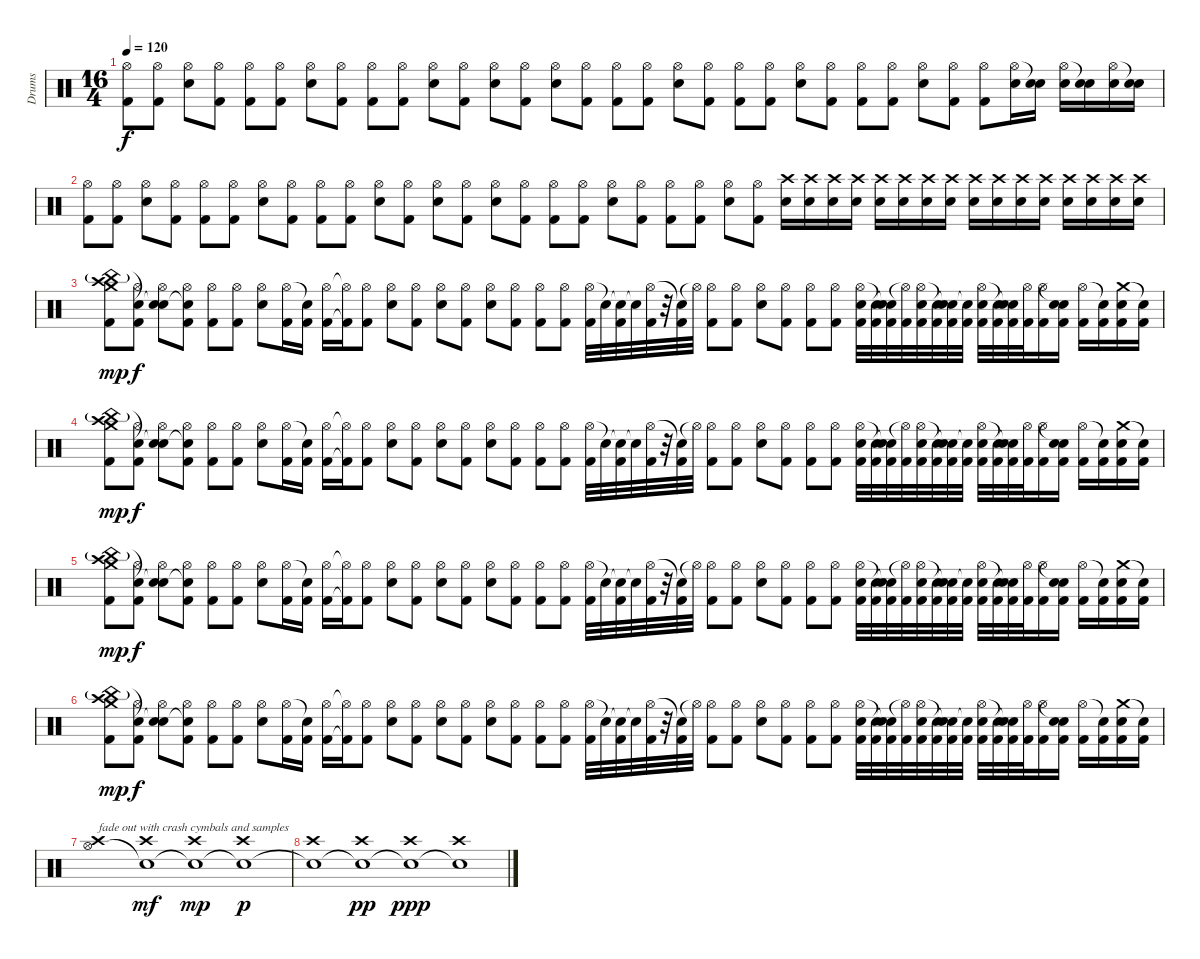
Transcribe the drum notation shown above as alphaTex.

\track ("Drums" "Drums") {instrument percussion}
\staff {score}
\articulation defaults
\ts (16 4)
\tempo 120
\clef neutral
\ks c
("Hi-Hat (open)" "Kick (hit) 2").8{dy f} ("Hi-Hat (open)" "Kick (hit) 2").8 ("Hi-Hat (open)" "Snare (hit) 2").8 ("Hi-Hat (open)" "Kick (hit) 2").8 ("Hi-Hat (open)" "Kick (hit) 2").8 ("Hi-Hat (open)" "Kick (hit) 2").8 ("Hi-Hat (open)" "Snare (hit) 2").8 ("Hi-Hat (open)" "Kick (hit) 2").8 ("Hi-Hat (open)" "Kick (hit) 2").8 ("Hi-Hat (open)" "Kick (hit) 2").8 ("Hi-Hat (open)" "Snare (hit) 2").8 ("Hi-Hat (open)" "Kick (hit) 2").8 ("Hi-Hat (open)" "Snare (hit) 2").8 ("Hi-Hat (open)" "Kick (hit) 2").8 ("Hi-Hat (open)" "Snare (hit) 2").8 ("Hi-Hat (open)" "Kick (hit) 2").8 ("Hi-Hat (open)" "Kick (hit) 2").8 ("Hi-Hat (open)" "Kick (hit) 2").8 ("Hi-Hat (open)" "Snare (hit) 2").8 ("Hi-Hat (open)" "Kick (hit) 2").8 ("Hi-Hat (open)" "Kick (hit) 2").8 ("Hi-Hat (open)" "Kick (hit) 2").8 ("Hi-Hat (open)" "Snare (hit) 2").8 ("Hi-Hat (open)" "Kick (hit) 2").8 ("Hi-Hat (open)" "Kick (hit) 2").8 ("Hi-Hat (open)" "Kick (hit) 2").8 ("Hi-Hat (open)" "Snare (hit) 2").8 ("Hi-Hat (open)" "Kick (hit) 2").8 ("Hi-Hat (open)" "Kick (hit) 2").8 ("Hi-Hat (open)" "Snare (hit) 2").16 ("Snare (hit)"{t} "Snare (hit) 2").16 ("Hi-Hat (open)" "Snare (hit) 2").16 ("Snare (hit)"{t} "Snare (hit) 2").16 ("Hi-Hat (open)" "Snare (hit) 2").16 ("Snare (hit)"{t} "Snare (hit) 2").16 |
("Hi-Hat (open)" "Kick (hit) 2").8 ("Hi-Hat (open)" "Kick (hit) 2").8 ("Hi-Hat (open)" "Snare (hit) 2").8 ("Hi-Hat (open)" "Kick (hit) 2").8 ("Hi-Hat (open)" "Kick (hit) 2").8 ("Hi-Hat (open)" "Kick (hit) 2").8 ("Hi-Hat (open)" "Snare (hit) 2").8 ("Hi-Hat (open)" "Kick (hit) 2").8 ("Hi-Hat (open)" "Kick (hit) 2").8 ("Hi-Hat (open)" "Kick (hit) 2").8 ("Hi-Hat (open)" "Snare (hit) 2").8 ("Hi-Hat (open)" "Kick (hit) 2").8 ("Hi-Hat (open)" "Snare (hit) 2").8 ("Hi-Hat (open)" "Kick (hit) 2").8 ("Hi-Hat (open)" "Snare (hit) 2").8 ("Hi-Hat (open)" "Kick (hit) 2").8 ("Hi-Hat (open)" "Kick (hit) 2").8 ("Hi-Hat (open)" "Kick (hit) 2").8 ("Hi-Hat (open)" "Snare (hit) 2").8 ("Hi-Hat (open)" "Kick (hit) 2").8 ("Hi-Hat (open)" "Kick (hit) 2").8 ("Hi-Hat (open)" "Kick (hit) 2").8 ("Hi-Hat (open)" "Snare (hit) 2").8 ("Hi-Hat (open)" "Kick (hit) 2").8 ("Crash high (hit)" "Snare (hit) 2").16 ("Crash high (hit)" "Snare (hit) 2").16 ("Crash high (hit)" "Snare (hit) 2").16 ("Crash high (hit)" "Snare (hit) 2").16 ("Crash high (hit)" "Snare (hit) 2").16 ("Crash high (hit)" "Snare (hit) 2").16 ("Crash high (hit)" "Snare (hit) 2").16 ("Crash high (hit)" "Snare (hit) 2").16 ("Crash high (hit)" "Snare (hit) 2").16 ("Crash high (hit)" "Snare (hit) 2").16 ("Crash high (hit)" "Snare (hit) 2").16 ("Crash high (hit)" "Snare (hit) 2").16 ("Crash high (hit)" "Snare (hit) 2").16 ("Crash high (hit)" "Snare (hit) 2").16 ("Crash high (hit)" "Snare (hit) 2").16 ("Crash high (hit)" "Snare (hit) 2").16 |
("Crash high (hit)" "China (hit)"{g} "Crash medium (hit)" "Kick (hit) 2").8{dy mp} ("Hi-Hat (open)" "Snare (hit)"{t} "Kick (hit) 2").8{dy f} ("Hi-Hat (open)" "Snare (hit)"{t} "Snare (hit) 2").8 ("Hi-Hat (open)" "Snare (hit)"{t} "Kick (hit) 2").8 ("Hi-Hat (open)" "Kick (hit) 2").8 ("Hi-Hat (open)" "Kick (hit) 2").8 ("Hi-Hat (open)" "Snare (hit) 2").8 ("Hi-Hat (open)" "Kick (hit) 2").16 ("Snare (hit)"{t} "Kick (hit) 2").16 ("Hi-Hat (open)" "Kick (hit) 2").16 ("Hi-Hat (open)"{t} "Kick (hit) 2"{t}).16 ("Hi-Hat (open)" "Kick (hit) 2").8 ("Hi-Hat (open)" "Snare (hit) 2").8 ("Hi-Hat (open)" "Kick (hit) 2").8 ("Hi-Hat (open)" "Snare (hit) 2").8 ("Hi-Hat (open)" "Kick (hit) 2").8 ("Hi-Hat (open)" "Snare (hit) 2").8 ("Hi-Hat (open)" "Kick (hit) 2").8 ("Hi-Hat (open)" "Kick (hit) 2").8 ("Hi-Hat (open)" "Kick (hit) 2").8 ("Hi-Hat (open)" "Kick (hit) 2").32 "Snare (hit)"{t}.32 ("Snare (hit)"{t} "Kick (hit) 2").32 "Snare (hit)"{t}.32 ("Hi-Hat (open)" "Kick (hit) 2").32 r.32 ("Snare (hit)"{t} "Kick (hit) 2").32 "Hi-Hat (open)"{t}.32 ("Hi-Hat (open)" "Kick (hit) 2").8 ("Hi-Hat (open)" "Kick (hit) 2").8 ("Hi-Hat (open)" "Snare (hit) 2").8 ("Hi-Hat (open)" "Kick (hit) 2").8 ("Hi-Hat (open)" "Kick (hit) 2").8 ("Hi-Hat (open)" "Kick (hit) 2").8 ("Hi-Hat (open)" "Electric Snare (hit)" "Kick (hit) 2").32 ("Snare (hit)"{t} "Kick (hit) 2").32 ("Snare (hit)"{t} "Electric Snare (hit)" "Kick (hit) 2").32 ("Hi-Hat (open)"{t} "Kick (hit) 2").32 ("Hi-Hat (open)" "Electric Snare (hit)" "Kick (hit) 2").32 ("Snare (hit)"{t} "Kick (hit) 2").32 ("Snare (hit)"{t} "Electric Snare (hit)" "Kick (hit) 2").32 ("Snare (hit)"{t} "Kick (hit) 2").32 ("Hi-Hat (open)" "Electric Snare (hit)" "Kick (hit) 2").32 ("Snare (hit)"{t} "Kick (hit) 2").32 ("Snare (hit)"{t} "Electric Snare (hit)" "Kick (hit) 2").32 ("Hi-Hat (open)" "Kick (hit) 2").32 ("Hi-Hat (open)" "Kick (hit) 2").16 ("Snare (hit)"{t} "Electric Snare (hit)" "Kick (hit) 2").16 ("Hi-Hat (open)" "Kick (hit) 2").16 ("Snare (hit)"{t} "Kick (hit) 2").16 ("Crash medium (hit)" "Electric Snare (hit)" "Kick (hit) 2").16 ("Snare (hit)"{t} "Kick (hit) 2").16 |
("Crash high (hit)" "China (hit)"{g} "Crash medium (hit)" "Kick (hit) 2").8{dy mp} ("Hi-Hat (open)" "Snare (hit)"{t} "Kick (hit) 2").8{dy f} ("Hi-Hat (open)" "Snare (hit)"{t} "Snare (hit) 2").8 ("Hi-Hat (open)" "Snare (hit)"{t} "Kick (hit) 2").8 ("Hi-Hat (open)" "Kick (hit) 2").8 ("Hi-Hat (open)" "Kick (hit) 2").8 ("Hi-Hat (open)" "Snare (hit) 2").8 ("Hi-Hat (open)" "Kick (hit) 2").16 ("Snare (hit)"{t} "Kick (hit) 2").16 ("Hi-Hat (open)" "Kick (hit) 2").16 ("Hi-Hat (open)"{t} "Kick (hit) 2"{t}).16 ("Hi-Hat (open)" "Kick (hit) 2").8 ("Hi-Hat (open)" "Snare (hit) 2").8 ("Hi-Hat (open)" "Kick (hit) 2").8 ("Hi-Hat (open)" "Snare (hit) 2").8 ("Hi-Hat (open)" "Kick (hit) 2").8 ("Hi-Hat (open)" "Snare (hit) 2").8 ("Hi-Hat (open)" "Kick (hit) 2").8 ("Hi-Hat (open)" "Kick (hit) 2").8 ("Hi-Hat (open)" "Kick (hit) 2").8 ("Hi-Hat (open)" "Kick (hit) 2").32 "Snare (hit)"{t}.32 ("Snare (hit)"{t} "Kick (hit) 2").32 "Snare (hit)"{t}.32 ("Hi-Hat (open)" "Kick (hit) 2").32 r.32 ("Snare (hit)"{t} "Kick (hit) 2").32 "Hi-Hat (open)"{t}.32 ("Hi-Hat (open)" "Kick (hit) 2").8 ("Hi-Hat (open)" "Kick (hit) 2").8 ("Hi-Hat (open)" "Snare (hit) 2").8 ("Hi-Hat (open)" "Kick (hit) 2").8 ("Hi-Hat (open)" "Kick (hit) 2").8 ("Hi-Hat (open)" "Kick (hit) 2").8 ("Hi-Hat (open)" "Electric Snare (hit)" "Kick (hit) 2").32 ("Snare (hit)"{t} "Kick (hit) 2").32 ("Snare (hit)"{t} "Electric Snare (hit)" "Kick (hit) 2").32 ("Hi-Hat (open)"{t} "Kick (hit) 2").32 ("Hi-Hat (open)" "Electric Snare (hit)" "Kick (hit) 2").32 ("Snare (hit)"{t} "Kick (hit) 2").32 ("Snare (hit)"{t} "Electric Snare (hit)" "Kick (hit) 2").32 ("Snare (hit)"{t} "Kick (hit) 2").32 ("Hi-Hat (open)" "Electric Snare (hit)" "Kick (hit) 2").32 ("Snare (hit)"{t} "Kick (hit) 2").32 ("Snare (hit)"{t} "Electric Snare (hit)" "Kick (hit) 2").32 ("Hi-Hat (open)" "Kick (hit) 2").32 ("Hi-Hat (open)" "Kick (hit) 2").16 ("Snare (hit)"{t} "Electric Snare (hit)" "Kick (hit) 2").16 ("Hi-Hat (open)" "Kick (hit) 2").16 ("Snare (hit)"{t} "Kick (hit) 2").16 ("Crash medium (hit)" "Electric Snare (hit)" "Kick (hit) 2").16 ("Snare (hit)"{t} "Kick (hit) 2").16 |
("Crash high (hit)" "China (hit)"{g} "Crash medium (hit)" "Kick (hit) 2").8{dy mp} ("Hi-Hat (open)" "Snare (hit)"{t} "Kick (hit) 2").8{dy f} ("Hi-Hat (open)" "Snare (hit)"{t} "Snare (hit) 2").8 ("Hi-Hat (open)" "Snare (hit)"{t} "Kick (hit) 2").8 ("Hi-Hat (open)" "Kick (hit) 2").8 ("Hi-Hat (open)" "Kick (hit) 2").8 ("Hi-Hat (open)" "Snare (hit) 2").8 ("Hi-Hat (open)" "Kick (hit) 2").16 ("Snare (hit)"{t} "Kick (hit) 2").16 ("Hi-Hat (open)" "Kick (hit) 2").16 ("Hi-Hat (open)"{t} "Kick (hit) 2"{t}).16 ("Hi-Hat (open)" "Kick (hit) 2").8 ("Hi-Hat (open)" "Snare (hit) 2").8 ("Hi-Hat (open)" "Kick (hit) 2").8 ("Hi-Hat (open)" "Snare (hit) 2").8 ("Hi-Hat (open)" "Kick (hit) 2").8 ("Hi-Hat (open)" "Snare (hit) 2").8 ("Hi-Hat (open)" "Kick (hit) 2").8 ("Hi-Hat (open)" "Kick (hit) 2").8 ("Hi-Hat (open)" "Kick (hit) 2").8 ("Hi-Hat (open)" "Kick (hit) 2").32 "Snare (hit)"{t}.32 ("Snare (hit)"{t} "Kick (hit) 2").32 "Snare (hit)"{t}.32 ("Hi-Hat (open)" "Kick (hit) 2").32 r.32 ("Snare (hit)"{t} "Kick (hit) 2").32 "Hi-Hat (open)"{t}.32 ("Hi-Hat (open)" "Kick (hit) 2").8 ("Hi-Hat (open)" "Kick (hit) 2").8 ("Hi-Hat (open)" "Snare (hit) 2").8 ("Hi-Hat (open)" "Kick (hit) 2").8 ("Hi-Hat (open)" "Kick (hit) 2").8 ("Hi-Hat (open)" "Kick (hit) 2").8 ("Hi-Hat (open)" "Electric Snare (hit)" "Kick (hit) 2").32 ("Snare (hit)"{t} "Kick (hit) 2").32 ("Snare (hit)"{t} "Electric Snare (hit)" "Kick (hit) 2").32 ("Hi-Hat (open)"{t} "Kick (hit) 2").32 ("Hi-Hat (open)" "Electric Snare (hit)" "Kick (hit) 2").32 ("Snare (hit)"{t} "Kick (hit) 2").32 ("Snare (hit)"{t} "Electric Snare (hit)" "Kick (hit) 2").32 ("Snare (hit)"{t} "Kick (hit) 2").32 ("Hi-Hat (open)" "Electric Snare (hit)" "Kick (hit) 2").32 ("Snare (hit)"{t} "Kick (hit) 2").32 ("Snare (hit)"{t} "Electric Snare (hit)" "Kick (hit) 2").32 ("Hi-Hat (open)" "Kick (hit) 2").32 ("Hi-Hat (open)" "Kick (hit) 2").16 ("Snare (hit)"{t} "Electric Snare (hit)" "Kick (hit) 2").16 ("Hi-Hat (open)" "Kick (hit) 2").16 ("Snare (hit)"{t} "Kick (hit) 2").16 ("Crash medium (hit)" "Electric Snare (hit)" "Kick (hit) 2").16 ("Snare (hit)"{t} "Kick (hit) 2").16 |
("Crash high (hit)" "China (hit)"{g} "Crash medium (hit)" "Kick (hit) 2").8{dy mp} ("Hi-Hat (open)" "Snare (hit)"{t} "Kick (hit) 2").8{dy f} ("Hi-Hat (open)" "Snare (hit)"{t} "Snare (hit) 2").8 ("Hi-Hat (open)" "Snare (hit)"{t} "Kick (hit) 2").8 ("Hi-Hat (open)" "Kick (hit) 2").8 ("Hi-Hat (open)" "Kick (hit) 2").8 ("Hi-Hat (open)" "Snare (hit) 2").8 ("Hi-Hat (open)" "Kick (hit) 2").16 ("Snare (hit)"{t} "Kick (hit) 2").16 ("Hi-Hat (open)" "Kick (hit) 2").16 ("Hi-Hat (open)"{t} "Kick (hit) 2"{t}).16 ("Hi-Hat (open)" "Kick (hit) 2").8 ("Hi-Hat (open)" "Snare (hit) 2").8 ("Hi-Hat (open)" "Kick (hit) 2").8 ("Hi-Hat (open)" "Snare (hit) 2").8 ("Hi-Hat (open)" "Kick (hit) 2").8 ("Hi-Hat (open)" "Snare (hit) 2").8 ("Hi-Hat (open)" "Kick (hit) 2").8 ("Hi-Hat (open)" "Kick (hit) 2").8 ("Hi-Hat (open)" "Kick (hit) 2").8 ("Hi-Hat (open)" "Kick (hit) 2").32 "Snare (hit)"{t}.32 ("Snare (hit)"{t} "Kick (hit) 2").32 "Snare (hit)"{t}.32 ("Hi-Hat (open)" "Kick (hit) 2").32 r.32 ("Snare (hit)"{t} "Kick (hit) 2").32 "Hi-Hat (open)"{t}.32 ("Hi-Hat (open)" "Kick (hit) 2").8 ("Hi-Hat (open)" "Kick (hit) 2").8 ("Hi-Hat (open)" "Snare (hit) 2").8 ("Hi-Hat (open)" "Kick (hit) 2").8 ("Hi-Hat (open)" "Kick (hit) 2").8 ("Hi-Hat (open)" "Kick (hit) 2").8 ("Hi-Hat (open)" "Electric Snare (hit)" "Kick (hit) 2").32 ("Snare (hit)"{t} "Kick (hit) 2").32 ("Snare (hit)"{t} "Electric Snare (hit)" "Kick (hit) 2").32 ("Hi-Hat (open)"{t} "Kick (hit) 2").32 ("Hi-Hat (open)" "Electric Snare (hit)" "Kick (hit) 2").32 ("Snare (hit)"{t} "Kick (hit) 2").32 ("Snare (hit)"{t} "Electric Snare (hit)" "Kick (hit) 2").32 ("Snare (hit)"{t} "Kick (hit) 2").32 ("Hi-Hat (open)" "Electric Snare (hit)" "Kick (hit) 2").32 ("Snare (hit)"{t} "Kick (hit) 2").32 ("Snare (hit)"{t} "Electric Snare (hit)" "Kick (hit) 2").32 ("Hi-Hat (open)" "Kick (hit) 2").32 ("Hi-Hat (open)" "Kick (hit) 2").16 ("Snare (hit)"{t} "Electric Snare (hit)" "Kick (hit) 2").16 ("Hi-Hat (open)" "Kick (hit) 2").16 ("Snare (hit)"{t} "Kick (hit) 2").16 ("Crash medium (hit)" "Electric Snare (hit)" "Kick (hit) 2").16 ("Snare (hit)"{t} "Kick (hit) 2").16 |
("Hi-Hat (open)" "Crash high (hit)").1{txt "fade out with crash cymbals and samples"} ("Snare (hit)"{t} "Crash high (hit)").1{dy mf} ("Snare (hit)"{t} "Crash high (hit)").1{dy mp} ("Snare (hit)"{t} "Crash high (hit)").1{dy p} |
("Snare (hit)"{t} "Crash high (hit)").1 ("Snare (hit)"{t} "Crash high (hit)").1{dy pp} ("Snare (hit)"{t} "Crash high (hit)").1{dy ppp} ("Snare (hit)"{t} "Crash high (hit)").1
